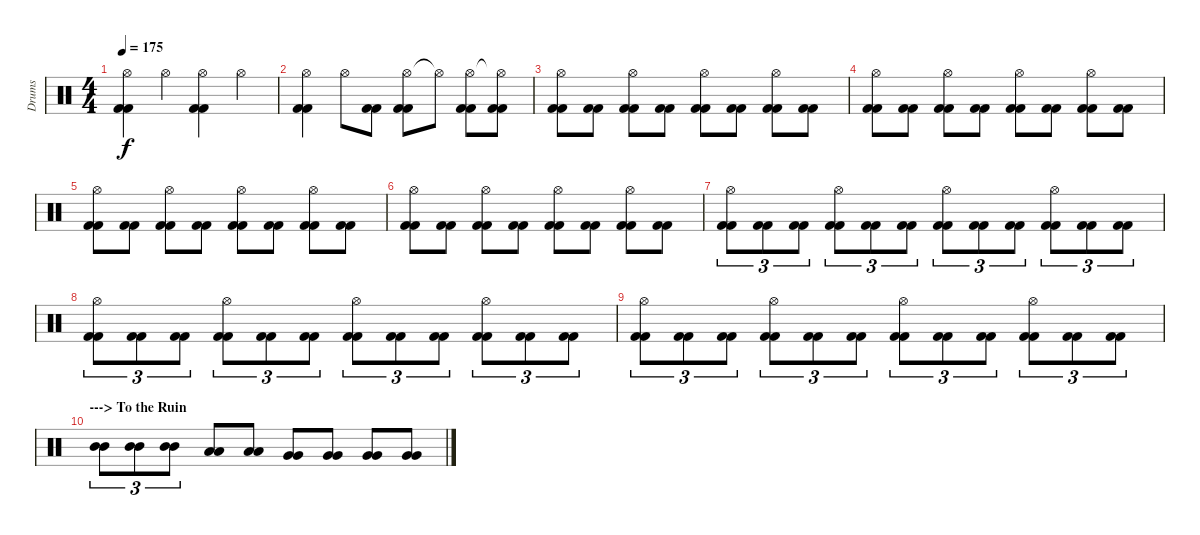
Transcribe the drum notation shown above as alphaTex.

\track ("Drums" "Drums") {instrument percussion}
\staff {score}
\articulation defaults
\ts (4 4)
\tempo 175
\clef neutral
\ks c
("Hi-Hat (open)" "Kick (hit) 2" "Kick (hit) 2").4{dy f} "Hi-Hat (open)".4 ("Hi-Hat (open)" "Kick (hit) 2" "Kick (hit) 2").4 "Hi-Hat (open)".4 |
("Hi-Hat (open)" "Kick (hit) 2" "Kick (hit) 2").4 "Hi-Hat (open)".8 ("Kick (hit) 2" "Kick (hit) 2").8 ("Hi-Hat (open)" "Kick (hit) 2" "Kick (hit) 2").8 "Hi-Hat (open)"{t}.8 ("Hi-Hat (open)" "Kick (hit) 2" "Kick (hit) 2").8 ("Hi-Hat (open)"{t} "Kick (hit) 2" "Kick (hit) 2").8 |
("Hi-Hat (open)" "Kick (hit) 2" "Kick (hit) 2").8 ("Kick (hit) 2" "Kick (hit) 2").8 ("Hi-Hat (open)" "Kick (hit) 2" "Kick (hit) 2").8 ("Kick (hit) 2" "Kick (hit) 2").8 ("Hi-Hat (open)" "Kick (hit) 2" "Kick (hit) 2").8 ("Kick (hit) 2" "Kick (hit) 2").8 ("Hi-Hat (open)" "Kick (hit) 2" "Kick (hit) 2").8 ("Kick (hit) 2" "Kick (hit) 2").8 |
("Hi-Hat (open)" "Kick (hit) 2" "Kick (hit) 2").8 ("Kick (hit) 2" "Kick (hit) 2").8 ("Hi-Hat (open)" "Kick (hit) 2" "Kick (hit) 2").8 ("Kick (hit) 2" "Kick (hit) 2").8 ("Hi-Hat (open)" "Kick (hit) 2" "Kick (hit) 2").8 ("Kick (hit) 2" "Kick (hit) 2").8 ("Hi-Hat (open)" "Kick (hit) 2" "Kick (hit) 2").8 ("Kick (hit) 2" "Kick (hit) 2").8 |
("Hi-Hat (open)" "Kick (hit) 2" "Kick (hit) 2").8 ("Kick (hit) 2" "Kick (hit) 2").8 ("Hi-Hat (open)" "Kick (hit) 2" "Kick (hit) 2").8 ("Kick (hit) 2" "Kick (hit) 2").8 ("Hi-Hat (open)" "Kick (hit) 2" "Kick (hit) 2").8 ("Kick (hit) 2" "Kick (hit) 2").8 ("Hi-Hat (open)" "Kick (hit) 2" "Kick (hit) 2").8 ("Kick (hit) 2" "Kick (hit) 2").8 |
("Hi-Hat (open)" "Kick (hit) 2" "Kick (hit) 2").8 ("Kick (hit) 2" "Kick (hit) 2").8 ("Hi-Hat (open)" "Kick (hit) 2" "Kick (hit) 2").8 ("Kick (hit) 2" "Kick (hit) 2").8 ("Hi-Hat (open)" "Kick (hit) 2" "Kick (hit) 2").8 ("Kick (hit) 2" "Kick (hit) 2").8 ("Hi-Hat (open)" "Kick (hit) 2" "Kick (hit) 2").8 ("Kick (hit) 2" "Kick (hit) 2").8 |
("Hi-Hat (open)" "Kick (hit) 2" "Kick (hit) 2").8{tu (3 2)} ("Kick (hit) 2" "Kick (hit) 2").8{tu (3 2)} ("Kick (hit) 2" "Kick (hit) 2").8{tu (3 2)} ("Hi-Hat (open)" "Kick (hit) 2" "Kick (hit) 2").8{tu (3 2)} ("Kick (hit) 2" "Kick (hit) 2").8{tu (3 2)} ("Kick (hit) 2" "Kick (hit) 2").8{tu (3 2)} ("Hi-Hat (open)" "Kick (hit) 2" "Kick (hit) 2").8{tu (3 2)} ("Kick (hit) 2" "Kick (hit) 2").8{tu (3 2)} ("Kick (hit) 2" "Kick (hit) 2").8{tu (3 2)} ("Hi-Hat (open)" "Kick (hit) 2" "Kick (hit) 2").8{tu (3 2)} ("Kick (hit) 2" "Kick (hit) 2").8{tu (3 2)} ("Kick (hit) 2" "Kick (hit) 2").8{tu (3 2)} |
("Hi-Hat (open)" "Kick (hit) 2" "Kick (hit) 2").8{tu (3 2)} ("Kick (hit) 2" "Kick (hit) 2").8{tu (3 2)} ("Kick (hit) 2" "Kick (hit) 2").8{tu (3 2)} ("Hi-Hat (open)" "Kick (hit) 2" "Kick (hit) 2").8{tu (3 2)} ("Kick (hit) 2" "Kick (hit) 2").8{tu (3 2)} ("Kick (hit) 2" "Kick (hit) 2").8{tu (3 2)} ("Hi-Hat (open)" "Kick (hit) 2" "Kick (hit) 2").8{tu (3 2)} ("Kick (hit) 2" "Kick (hit) 2").8{tu (3 2)} ("Kick (hit) 2" "Kick (hit) 2").8{tu (3 2)} ("Hi-Hat (open)" "Kick (hit) 2" "Kick (hit) 2").8{tu (3 2)} ("Kick (hit) 2" "Kick (hit) 2").8{tu (3 2)} ("Kick (hit) 2" "Kick (hit) 2").8{tu (3 2)} |
("Hi-Hat (open)" "Kick (hit) 2" "Kick (hit) 2").8{tu (3 2)} ("Kick (hit) 2" "Kick (hit) 2").8{tu (3 2)} ("Kick (hit) 2" "Kick (hit) 2").8{tu (3 2)} ("Hi-Hat (open)" "Kick (hit) 2" "Kick (hit) 2").8{tu (3 2)} ("Kick (hit) 2" "Kick (hit) 2").8{tu (3 2)} ("Kick (hit) 2" "Kick (hit) 2").8{tu (3 2)} ("Hi-Hat (open)" "Kick (hit) 2" "Kick (hit) 2").8{tu (3 2)} ("Kick (hit) 2" "Kick (hit) 2").8{tu (3 2)} ("Kick (hit) 2" "Kick (hit) 2").8{tu (3 2)} ("Hi-Hat (open)" "Kick (hit) 2" "Kick (hit) 2").8{tu (3 2)} ("Kick (hit) 2" "Kick (hit) 2").8{tu (3 2)} ("Kick (hit) 2" "Kick (hit) 2").8{tu (3 2)} |
\section ("" "---> To the Ruin")
("Mid Tom (hit)" "Mid Tom (hit)").8{tu (3 2)} ("Mid Tom (hit)" "Mid Tom (hit)").8{tu (3 2)} ("Mid Tom (hit)" "Mid Tom (hit)").8{tu (3 2)} ("Low Tom (hit)" "Low Tom (hit)").8 ("Low Tom (hit)" "Low Tom (hit)").8 ("Very Low Tom (hit)" "Very Low Tom (hit)").8 ("Very Low Tom (hit)" "Very Low Tom (hit)").8 ("Very Low Tom (hit)" "Very Low Tom (hit)").8 ("Very Low Tom (hit)" "Very Low Tom (hit)").8
